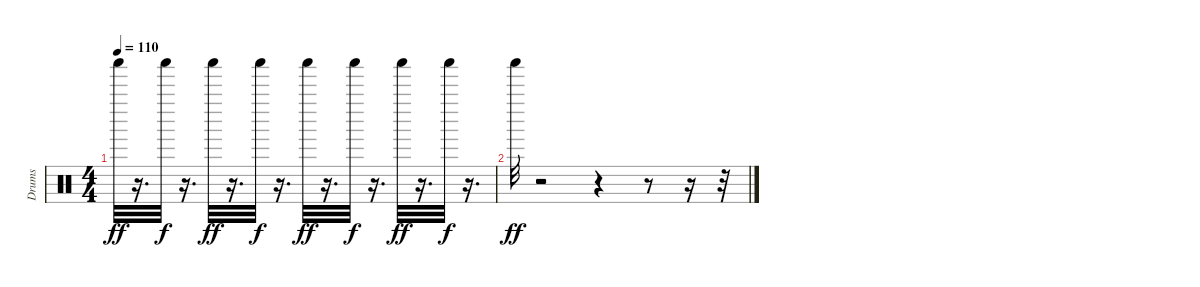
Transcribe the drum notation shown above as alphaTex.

\track ("Drums" "Drums") {instrument percussion}
\staff {score}
\articulation defaults
\ts (4 4)
\tempo 110
\clef neutral
\ks c "Shaker (hit)".32{dy ff}
r.16{d} "Shaker (hit)".32{dy f} r.16{d} "Shaker (hit)".32{dy ff} r.16{d} "Shaker (hit)".32{dy f} r.16{d} "Shaker (hit)".32{dy ff} r.16{d} "Shaker (hit)".32{dy f} r.16{d} "Shaker (hit)".32{dy ff} r.16{d} "Shaker (hit)".32{dy f} r.16{d} |
"Shaker (hit)".32{dy ff} r.2 r.4 r.8 r.16 r.32
